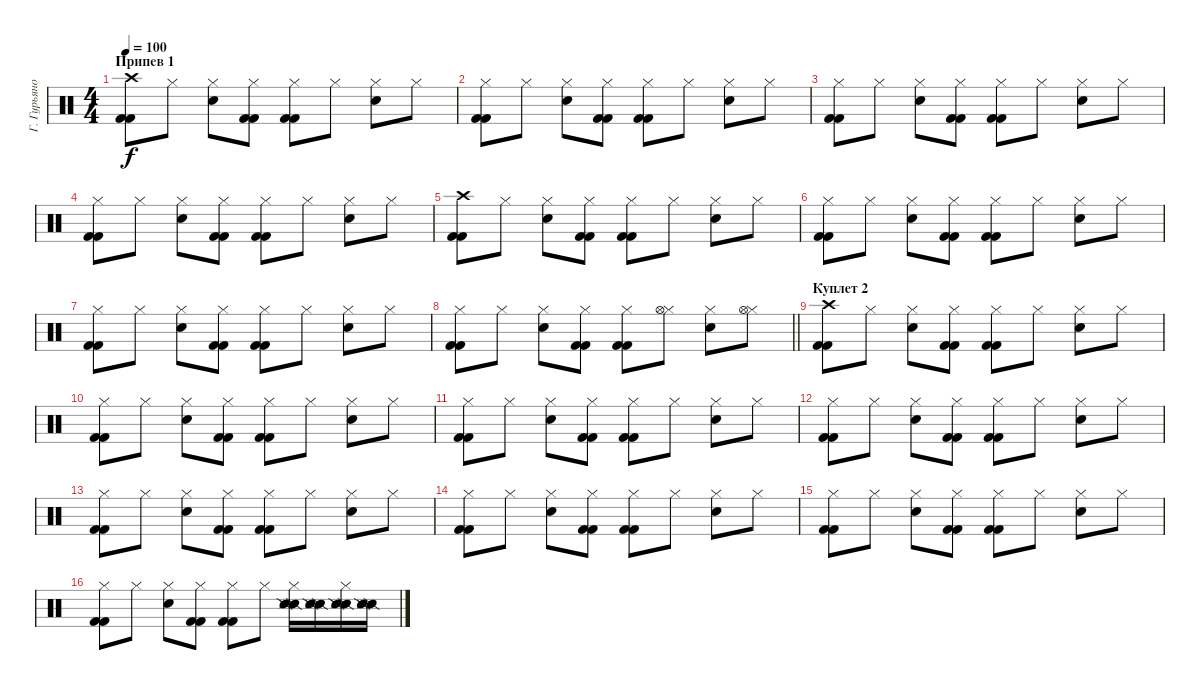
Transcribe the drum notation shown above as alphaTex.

\track ("Г. Гурьянов" "Г. Гурьяно") {instrument percussion}
\staff {score}
\articulation defaults
\ts (4 4)
\section ("" "Припев 1")
\tempo 100
\clef neutral
\ks c
("Crash high (hit)" "Kick (hit) 2" "Kick (hit) 2").8{dy f} "Hi-Hat (closed)".8 ("Hi-Hat (closed)" "Snare (hit) 2").8 ("Hi-Hat (closed)" "Kick (hit) 2" "Kick (hit) 2").8 ("Hi-Hat (closed)" "Kick (hit) 2" "Kick (hit) 2").8 "Hi-Hat (closed)".8 ("Hi-Hat (closed)" "Snare (hit) 2").8 "Hi-Hat (closed)".8 |
("Hi-Hat (closed)" "Kick (hit) 2" "Kick (hit) 2").8 "Hi-Hat (closed)".8 ("Hi-Hat (closed)" "Snare (hit) 2").8 ("Hi-Hat (closed)" "Kick (hit) 2" "Kick (hit) 2").8 ("Hi-Hat (closed)" "Kick (hit) 2" "Kick (hit) 2").8 "Hi-Hat (closed)".8 ("Hi-Hat (closed)" "Snare (hit) 2").8 "Hi-Hat (closed)".8 |
("Hi-Hat (closed)" "Kick (hit) 2" "Kick (hit) 2").8 "Hi-Hat (closed)".8 ("Hi-Hat (closed)" "Snare (hit) 2").8 ("Hi-Hat (closed)" "Kick (hit) 2" "Kick (hit) 2").8 ("Hi-Hat (closed)" "Kick (hit) 2" "Kick (hit) 2").8 "Hi-Hat (closed)".8 ("Hi-Hat (closed)" "Snare (hit) 2").8 "Hi-Hat (closed)".8 |
("Hi-Hat (closed)" "Kick (hit) 2" "Kick (hit) 2").8 "Hi-Hat (closed)".8 ("Hi-Hat (closed)" "Snare (hit) 2").8 ("Hi-Hat (closed)" "Kick (hit) 2" "Kick (hit) 2").8 ("Hi-Hat (closed)" "Kick (hit) 2" "Kick (hit) 2").8 "Hi-Hat (closed)".8 ("Hi-Hat (closed)" "Snare (hit) 2").8 "Hi-Hat (closed)".8 |
("Crash high (hit)" "Kick (hit) 2" "Kick (hit) 2").8 "Hi-Hat (closed)".8 ("Hi-Hat (closed)" "Hand Clap (hit)").8 ("Hi-Hat (closed)" "Kick (hit) 2" "Kick (hit) 2").8 ("Hi-Hat (closed)" "Kick (hit) 2" "Kick (hit) 2").8 "Hi-Hat (closed)".8 ("Hi-Hat (closed)" "Hand Clap (hit)").8 "Hi-Hat (closed)".8 |
("Hi-Hat (closed)" "Kick (hit) 2" "Kick (hit) 2").8 "Hi-Hat (closed)".8 ("Hi-Hat (closed)" "Hand Clap (hit)").8 ("Hi-Hat (closed)" "Kick (hit) 2" "Kick (hit) 2").8 ("Hi-Hat (closed)" "Kick (hit) 2" "Kick (hit) 2").8 "Hi-Hat (closed)".8 ("Hi-Hat (closed)" "Hand Clap (hit)").8 "Hi-Hat (closed)".8 |
("Hi-Hat (closed)" "Kick (hit) 2" "Kick (hit) 2").8 "Hi-Hat (closed)".8 ("Hi-Hat (closed)" "Hand Clap (hit)").8 ("Hi-Hat (closed)" "Kick (hit) 2" "Kick (hit) 2").8 ("Hi-Hat (closed)" "Kick (hit) 2" "Kick (hit) 2").8 "Hi-Hat (closed)".8 ("Hi-Hat (closed)" "Hand Clap (hit)").8 "Hi-Hat (closed)".8 |
\barLineRight lightlight
("Hi-Hat (closed)" "Kick (hit) 2" "Kick (hit) 2").8 "Hi-Hat (closed)".8 ("Hi-Hat (closed)" "Hand Clap (hit)").8 ("Hi-Hat (closed)" "Kick (hit) 2" "Kick (hit) 2").8 ("Hi-Hat (closed)" "Kick (hit) 2" "Kick (hit) 2").8 ("Hi-Hat (closed)" "Hi-Hat (open)").8 ("Hi-Hat (closed)" "Hand Clap (hit)").8 ("Hi-Hat (closed)" "Hi-Hat (open)").8 |
\section ("" "Куплет 2")
("Crash high (hit)" "Kick (hit) 2" "Kick (hit) 2").8 "Hi-Hat (closed)".8 ("Hi-Hat (closed)" "Hand Clap (hit)").8 ("Hi-Hat (closed)" "Kick (hit) 2" "Kick (hit) 2").8 ("Hi-Hat (closed)" "Kick (hit) 2" "Kick (hit) 2").8 "Hi-Hat (closed)".8 ("Hi-Hat (closed)" "Hand Clap (hit)").8 "Hi-Hat (closed)".8 |
("Hi-Hat (closed)" "Kick (hit) 2" "Kick (hit) 2").8 "Hi-Hat (closed)".8 ("Hi-Hat (closed)" "Hand Clap (hit)").8 ("Hi-Hat (closed)" "Kick (hit) 2" "Kick (hit) 2").8 ("Hi-Hat (closed)" "Kick (hit) 2" "Kick (hit) 2").8 "Hi-Hat (closed)".8 ("Hi-Hat (closed)" "Hand Clap (hit)").8 "Hi-Hat (closed)".8 |
("Hi-Hat (closed)" "Kick (hit) 2" "Kick (hit) 2").8 "Hi-Hat (closed)".8 ("Hi-Hat (closed)" "Hand Clap (hit)").8 ("Hi-Hat (closed)" "Kick (hit) 2" "Kick (hit) 2").8 ("Hi-Hat (closed)" "Kick (hit) 2" "Kick (hit) 2").8 "Hi-Hat (closed)".8 ("Hi-Hat (closed)" "Hand Clap (hit)").8 "Hi-Hat (closed)".8 |
("Hi-Hat (closed)" "Kick (hit) 2" "Kick (hit) 2").8 "Hi-Hat (closed)".8 ("Hi-Hat (closed)" "Hand Clap (hit)").8 ("Hi-Hat (closed)" "Kick (hit) 2" "Kick (hit) 2").8 ("Hi-Hat (closed)" "Kick (hit) 2" "Kick (hit) 2").8 "Hi-Hat (closed)".8 ("Hi-Hat (closed)" "Hand Clap (hit)").8 "Hi-Hat (closed)".8 |
("Hi-Hat (closed)" "Kick (hit) 2" "Kick (hit) 2").8 "Hi-Hat (closed)".8 ("Hi-Hat (closed)" "Hand Clap (hit)").8 ("Hi-Hat (closed)" "Kick (hit) 2" "Kick (hit) 2").8 ("Hi-Hat (closed)" "Kick (hit) 2" "Kick (hit) 2").8 "Hi-Hat (closed)".8 ("Hi-Hat (closed)" "Hand Clap (hit)").8 "Hi-Hat (closed)".8 |
("Hi-Hat (closed)" "Kick (hit) 2" "Kick (hit) 2").8 "Hi-Hat (closed)".8 ("Hi-Hat (closed)" "Hand Clap (hit)").8 ("Hi-Hat (closed)" "Kick (hit) 2" "Kick (hit) 2").8 ("Hi-Hat (closed)" "Kick (hit) 2" "Kick (hit) 2").8 "Hi-Hat (closed)".8 ("Hi-Hat (closed)" "Hand Clap (hit)").8 "Hi-Hat (closed)".8 |
("Hi-Hat (closed)" "Kick (hit) 2" "Kick (hit) 2").8 "Hi-Hat (closed)".8 ("Hi-Hat (closed)" "Hand Clap (hit)").8 ("Hi-Hat (closed)" "Kick (hit) 2" "Kick (hit) 2").8 ("Hi-Hat (closed)" "Kick (hit) 2" "Kick (hit) 2").8 "Hi-Hat (closed)".8 ("Hi-Hat (closed)" "Hand Clap (hit)").8 "Hi-Hat (closed)".8 |
("Hi-Hat (closed)" "Kick (hit) 2" "Kick (hit) 2").8 "Hi-Hat (closed)".8 ("Hi-Hat (closed)" "Hand Clap (hit)").8 ("Hi-Hat (closed)" "Kick (hit) 2" "Kick (hit) 2").8 ("Hi-Hat (closed)" "Kick (hit) 2" "Kick (hit) 2").8 "Hi-Hat (closed)".8 ("Hi-Hat (closed)" "Snare (side stick) 2" "Snare (side stick) 3" "Snare (side stick) 2").16 ("Snare (side stick) 2" "Snare (side stick) 3" "Snare (side stick) 2").16 ("Hi-Hat (closed)" "Snare (side stick) 2" "Snare (side stick) 3" "Snare (side stick) 2").16 ("Snare (side stick) 2" "Snare (side stick) 3" "Snare (side stick) 2").16
